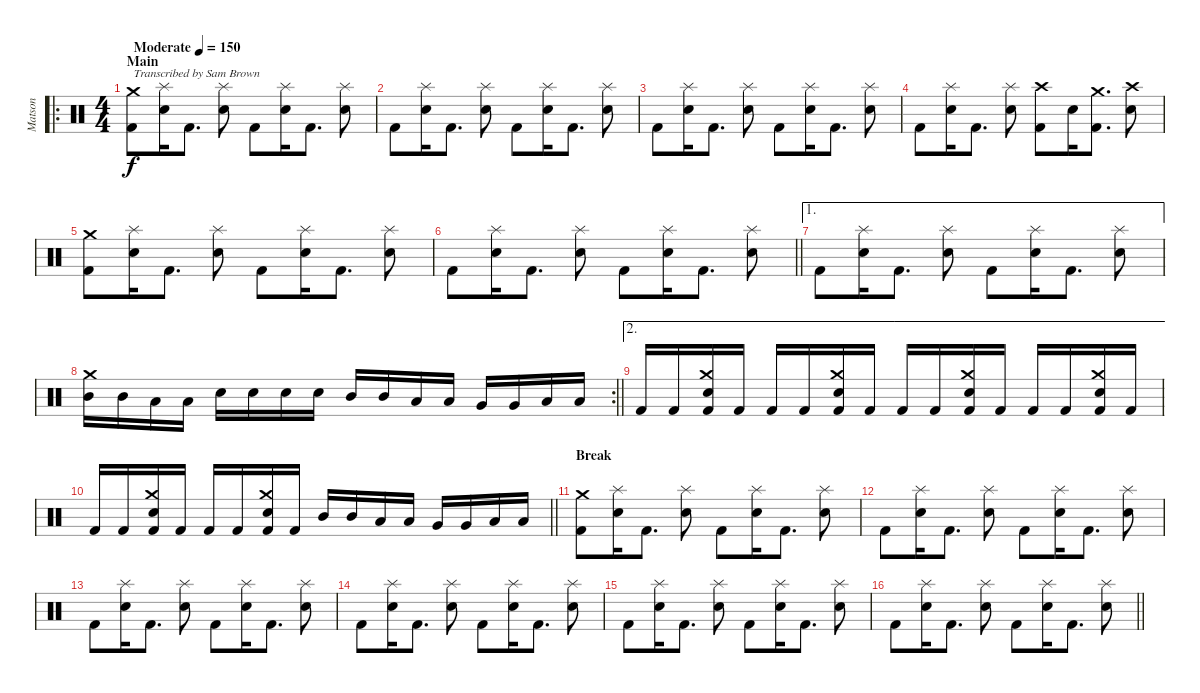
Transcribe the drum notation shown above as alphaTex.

\track ("Matson" "Matson") {instrument percussion}
\staff {score}
\articulation defaults
\ro
\ts (4 4)
\section ("" "Main")
\tempo (150 "Moderate")
\clef neutral
\ks c
("Kick (hit) 2" "Crash medium (hit)").8{txt "Transcribed by Sam Brown" dy f} ("Snare (hit) 2" "Splash (hit)").16 "Kick (hit) 2".8{d} ("Snare (hit) 2" "Splash (hit)").8 "Kick (hit) 2".8 ("Snare (hit) 2" "Splash (hit)").16 "Kick (hit) 2".8{d} ("Snare (hit) 2" "Splash (hit)").8 |
"Kick (hit) 2".8 ("Snare (hit) 2" "Splash (hit)").16 "Kick (hit) 2".8{d} ("Snare (hit) 2" "Splash (hit)").8 "Kick (hit) 2".8 ("Snare (hit) 2" "Splash (hit)").16 "Kick (hit) 2".8{d} ("Snare (hit) 2" "Splash (hit)").8 |
"Kick (hit) 2".8 ("Snare (hit) 2" "Splash (hit)").16 "Kick (hit) 2".8{d} ("Snare (hit) 2" "Splash (hit)").8 "Kick (hit) 2".8 ("Snare (hit) 2" "Splash (hit)").16 "Kick (hit) 2".8{d} ("Snare (hit) 2" "Splash (hit)").8 |
"Kick (hit) 2".8 ("Snare (hit) 2" "Splash (hit)").16 "Kick (hit) 2".8{d} ("Snare (hit) 2" "Splash (hit)").8 ("Kick (hit) 2" "Crash high (hit)").8 "Snare (hit) 2".16 ("Kick (hit) 2" "Crash medium (hit)").8{d} ("Snare (hit) 2" "Crash high (hit)").8 |
("Kick (hit) 2" "Crash medium (hit)").8 ("Snare (hit) 2" "Splash (hit)").16 "Kick (hit) 2".8{d} ("Snare (hit) 2" "Splash (hit)").8 "Kick (hit) 2".8 ("Snare (hit) 2" "Splash (hit)").16 "Kick (hit) 2".8{d} ("Snare (hit) 2" "Splash (hit)").8 |
\barLineRight lightlight "Kick (hit) 2".8
("Snare (hit) 2" "Splash (hit)").16 "Kick (hit) 2".8{d} ("Snare (hit) 2" "Splash (hit)").8 "Kick (hit) 2".8 ("Snare (hit) 2" "Splash (hit)").16 "Kick (hit) 2".8{d} ("Snare (hit) 2" "Splash (hit)").8 |
\ae 1
\section ("" "")
"Kick (hit) 2".8 ("Snare (hit) 2" "Splash (hit)").16 "Kick (hit) 2".8{d} ("Snare (hit) 2" "Splash (hit)").8 "Kick (hit) 2".8 ("Snare (hit) 2" "Splash (hit)").16 "Kick (hit) 2".8{d} ("Snare (hit) 2" "Splash (hit)").8 |
\rc 2
\barLineRight lightlight
("Mid Tom (hit)" "Crash medium (hit)").16 "Mid Tom (hit)".16 "Low Tom (hit)".16 "Low Tom (hit)".16 "Snare (hit) 2".16 "Snare (hit) 2".16 "Snare (hit) 2".16 "Snare (hit) 2".16 "Mid Tom (hit)".16 "Mid Tom (hit)".16 "Low Tom (hit)".16 "Low Tom (hit)".16 "Very Low Tom (hit)".16 "Very Low Tom (hit)".16 "Low Floor Tom (hit)".16 "Low Floor Tom (hit)".16 |
\ae 2
\section ("" "")
"Kick (hit) 2".16 "Kick (hit) 2".16 ("Kick (hit) 2" "Snare (hit) 2" "Crash medium (hit)").16 "Kick (hit) 2".16 "Kick (hit) 2".16 "Kick (hit) 2".16 ("Kick (hit) 2" "Snare (hit) 2" "Crash medium (hit)").16 "Kick (hit) 2".16 "Kick (hit) 2".16 "Kick (hit) 2".16 ("Kick (hit) 2" "Snare (hit) 2" "Crash medium (hit)").16 "Kick (hit) 2".16 "Kick (hit) 2".16 "Kick (hit) 2".16 ("Kick (hit) 2" "Snare (hit) 2" "Crash medium (hit)").16 "Kick (hit) 2".16 |
\barLineRight lightlight "Kick (hit) 2".16 "Kick (hit) 2".16
("Kick (hit) 2" "Snare (hit) 2" "Crash medium (hit)").16 "Kick (hit) 2".16 "Kick (hit) 2".16 "Kick (hit) 2".16 ("Kick (hit) 2" "Snare (hit) 2" "Crash medium (hit)").16 "Kick (hit) 2".16 "Mid Tom (hit)".16 "Mid Tom (hit)".16 "Low Tom (hit)".16 "Low Tom (hit)".16 "Very Low Tom (hit)".16 "Very Low Tom (hit)".16 "Low Floor Tom (hit)".16 "Low Floor Tom (hit)".16 |
\section ("" "Break")
("Kick (hit) 2" "Crash medium (hit)").8 ("Snare (hit) 2" "Splash (hit)").16 "Kick (hit) 2".8{d} ("Snare (hit) 2" "Splash (hit)").8 "Kick (hit) 2".8 ("Snare (hit) 2" "Splash (hit)").16 "Kick (hit) 2".8{d} ("Snare (hit) 2" "Splash (hit)").8 |
"Kick (hit) 2".8 ("Snare (hit) 2" "Splash (hit)").16 "Kick (hit) 2".8{d} ("Snare (hit) 2" "Splash (hit)").8 "Kick (hit) 2".8 ("Snare (hit) 2" "Splash (hit)").16 "Kick (hit) 2".8{d} ("Snare (hit) 2" "Splash (hit)").8 |
"Kick (hit) 2".8 ("Snare (hit) 2" "Splash (hit)").16 "Kick (hit) 2".8{d} ("Snare (hit) 2" "Splash (hit)").8 "Kick (hit) 2".8 ("Snare (hit) 2" "Splash (hit)").16 "Kick (hit) 2".8{d} ("Snare (hit) 2" "Splash (hit)").8 |
"Kick (hit) 2".8 ("Snare (hit) 2" "Splash (hit)").16 "Kick (hit) 2".8{d} ("Snare (hit) 2" "Splash (hit)").8 "Kick (hit) 2".8 ("Snare (hit) 2" "Splash (hit)").16 "Kick (hit) 2".8{d} ("Snare (hit) 2" "Splash (hit)").8 |
"Kick (hit) 2".8 ("Snare (hit) 2" "Splash (hit)").16 "Kick (hit) 2".8{d} ("Snare (hit) 2" "Splash (hit)").8 "Kick (hit) 2".8 ("Snare (hit) 2" "Splash (hit)").16 "Kick (hit) 2".8{d} ("Snare (hit) 2" "Splash (hit)").8 |
\barLineRight lightlight "Kick (hit) 2".8
("Snare (hit) 2" "Splash (hit)").16 "Kick (hit) 2".8{d} ("Snare (hit) 2" "Splash (hit)").8 "Kick (hit) 2".8 ("Snare (hit) 2" "Splash (hit)").16 "Kick (hit) 2".8{d} ("Snare (hit) 2" "Splash (hit)").8
